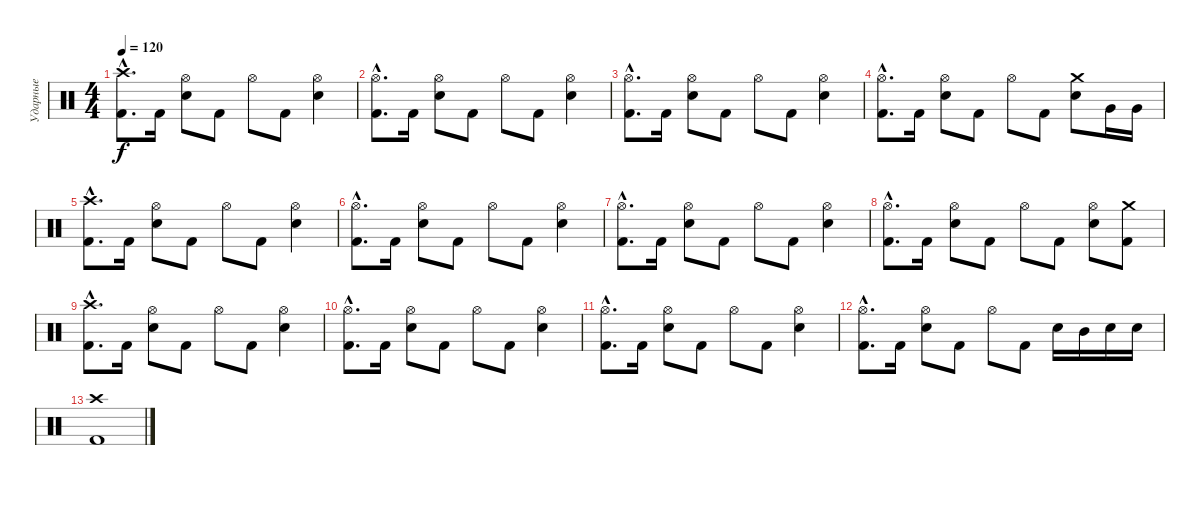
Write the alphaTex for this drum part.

\track ("Ударные" "Ударные") {instrument percussion}
\staff {score}
\articulation defaults
\ts (4 4)
\tempo 120
\clef neutral
\ks c
("Crash high (hit)"{hac} "Kick (hit) 2"{hac}).8{d dy f} "Kick (hit) 2".16 ("Hi-Hat (open)" "Electric Snare (hit)").8 "Kick (hit) 2".8 "Hi-Hat (open)".8 "Kick (hit) 2".8 ("Hi-Hat (open)" "Electric Snare (hit)").4 |
("Hi-Hat (open)"{hac} "Kick (hit) 2"{hac}).8{d} "Kick (hit) 2".16 ("Hi-Hat (open)" "Electric Snare (hit)").8 "Kick (hit) 2".8 "Hi-Hat (open)".8 "Kick (hit) 2".8 ("Hi-Hat (open)" "Electric Snare (hit)").4 |
("Hi-Hat (open)"{hac} "Kick (hit) 2"{hac}).8{d} "Kick (hit) 2".16 ("Hi-Hat (open)" "Electric Snare (hit)").8 "Kick (hit) 2".8 "Hi-Hat (open)".8 "Kick (hit) 2".8 ("Hi-Hat (open)" "Electric Snare (hit)").4 |
("Hi-Hat (open)"{hac} "Kick (hit) 2"{hac}).8{d} "Kick (hit) 2".16 ("Hi-Hat (open)" "Electric Snare (hit)").8 "Kick (hit) 2".8 "Hi-Hat (open)".8 "Kick (hit) 2".8 ("Crash medium (hit)" "Electric Snare (hit)").8 "Very Low Tom (hit)".16 "Very Low Tom (hit)".16 |
("Crash high (hit)"{hac} "Kick (hit) 2"{hac}).8{d} "Kick (hit) 2".16 ("Hi-Hat (open)" "Electric Snare (hit)").8 "Kick (hit) 2".8 "Hi-Hat (open)".8 "Kick (hit) 2".8 ("Hi-Hat (open)" "Electric Snare (hit)").4 |
("Hi-Hat (open)"{hac} "Kick (hit) 2"{hac}).8{d} "Kick (hit) 2".16 ("Hi-Hat (open)" "Electric Snare (hit)").8 "Kick (hit) 2".8 "Hi-Hat (open)".8 "Kick (hit) 2".8 ("Hi-Hat (open)" "Electric Snare (hit)").4 |
("Hi-Hat (open)"{hac} "Kick (hit) 2"{hac}).8{d} "Kick (hit) 2".16 ("Hi-Hat (open)" "Electric Snare (hit)").8 "Kick (hit) 2".8 "Hi-Hat (open)".8 "Kick (hit) 2".8 ("Hi-Hat (open)" "Electric Snare (hit)").4 |
("Hi-Hat (open)"{hac} "Kick (hit) 2"{hac}).8{d} "Kick (hit) 2".16 ("Hi-Hat (open)" "Electric Snare (hit)").8 "Kick (hit) 2".8 "Hi-Hat (open)".8 "Kick (hit) 2".8 ("Hi-Hat (open)" "Electric Snare (hit)").8 ("Crash medium (hit)" "Kick (hit) 2").8 |
("Crash high (hit)"{hac} "Kick (hit) 2"{hac}).8{d} "Kick (hit) 2".16 ("Hi-Hat (open)" "Electric Snare (hit)").8 "Kick (hit) 2".8 "Hi-Hat (open)".8 "Kick (hit) 2".8 ("Hi-Hat (open)" "Electric Snare (hit)").4 |
("Hi-Hat (open)"{hac} "Kick (hit) 2"{hac}).8{d} "Kick (hit) 2".16 ("Hi-Hat (open)" "Electric Snare (hit)").8 "Kick (hit) 2".8 "Hi-Hat (open)".8 "Kick (hit) 2".8 ("Hi-Hat (open)" "Electric Snare (hit)").4 |
("Hi-Hat (open)"{hac} "Kick (hit) 2"{hac}).8{d} "Kick (hit) 2".16 ("Hi-Hat (open)" "Electric Snare (hit)").8 "Kick (hit) 2".8 "Hi-Hat (open)".8 "Kick (hit) 2".8 ("Hi-Hat (open)" "Electric Snare (hit)").4 |
("Hi-Hat (open)"{hac} "Kick (hit) 2"{hac}).8{d} "Kick (hit) 2".16 ("Hi-Hat (open)" "Electric Snare (hit)").8 "Kick (hit) 2".8 "Hi-Hat (open)".8 "Kick (hit) 2".8 "Electric Snare (hit)".16 "Mid Tom (hit)".16 "Electric Snare (hit)".16 "Electric Snare (hit)".16 |
("Crash high (hit)" "Kick (hit) 2").1
